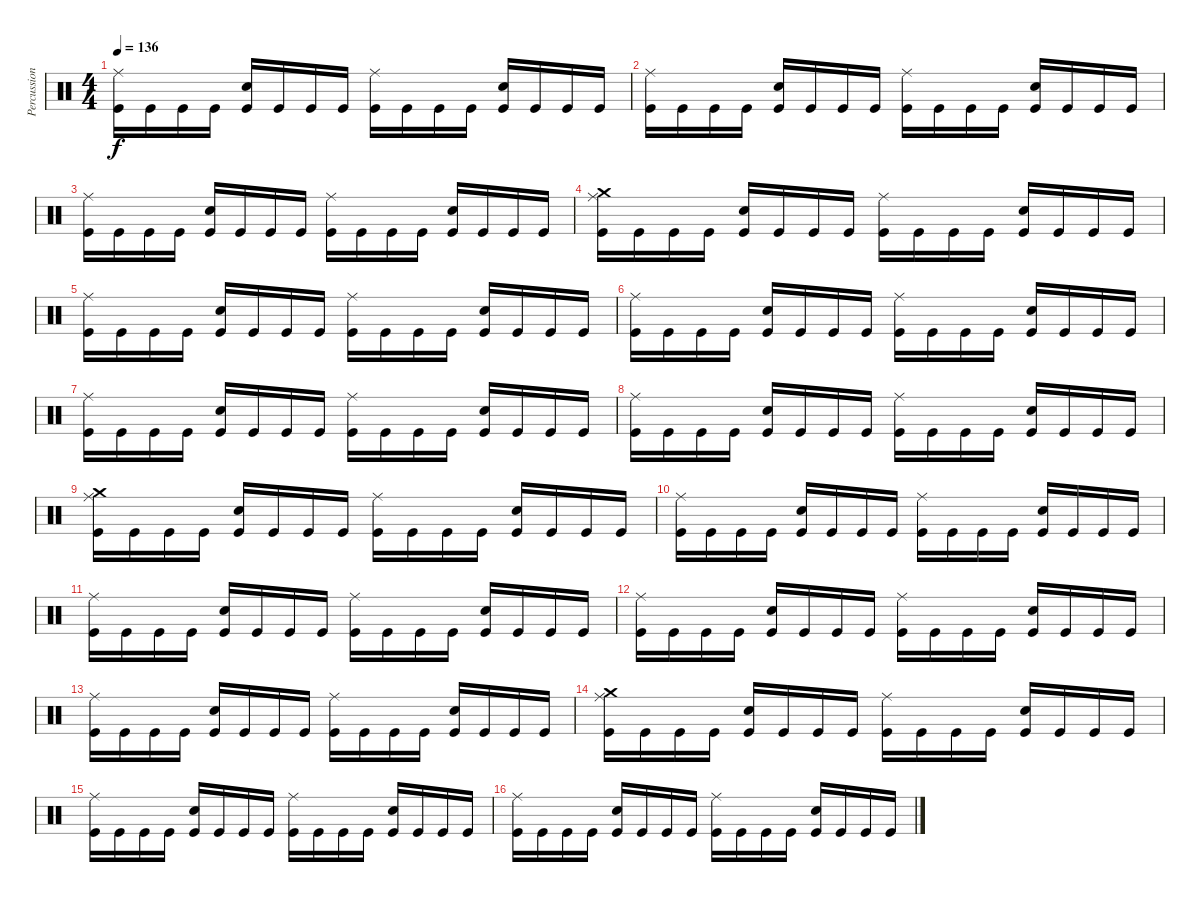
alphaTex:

\track ("Percussion IV" "Percussion") {instrument percussion}
\staff {score}
\articulation defaults
\ts (4 4)
\tempo 136
\clef neutral
\ks c
("Ride (middle)" "Kick (hit)").16{dy f} "Kick (hit)".16 "Kick (hit)".16 "Kick (hit)".16 ("Electric Snare (hit)" "Kick (hit)").16 "Kick (hit)".16 "Kick (hit)".16 "Kick (hit)".16 ("Ride (middle)" "Kick (hit)").16 "Kick (hit)".16 "Kick (hit)".16 "Kick (hit)".16 ("Electric Snare (hit)" "Kick (hit)").16 "Kick (hit)".16 "Kick (hit)".16 "Kick (hit)".16 |
("Ride (middle)" "Kick (hit)").16 "Kick (hit)".16 "Kick (hit)".16 "Kick (hit)".16 ("Electric Snare (hit)" "Kick (hit)").16 "Kick (hit)".16 "Kick (hit)".16 "Kick (hit)".16 ("Ride (middle)" "Kick (hit)").16 "Kick (hit)".16 "Kick (hit)".16 "Kick (hit)".16 ("Electric Snare (hit)" "Kick (hit)").16 "Kick (hit)".16 "Kick (hit)".16 "Kick (hit)".16 |
("Ride (middle)" "Kick (hit)").16 "Kick (hit)".16 "Kick (hit)".16 "Kick (hit)".16 ("Electric Snare (hit)" "Kick (hit)").16 "Kick (hit)".16 "Kick (hit)".16 "Kick (hit)".16 ("Ride (middle)" "Kick (hit)").16 "Kick (hit)".16 "Kick (hit)".16 "Kick (hit)".16 ("Electric Snare (hit)" "Kick (hit)").16 "Kick (hit)".16 "Kick (hit)".16 "Kick (hit)".16 |
("Crash medium (hit)" "Ride (middle)" "Kick (hit)").16 "Kick (hit)".16 "Kick (hit)".16 "Kick (hit)".16 ("Electric Snare (hit)" "Kick (hit)").16 "Kick (hit)".16 "Kick (hit)".16 "Kick (hit)".16 ("Ride (middle)" "Kick (hit)").16 "Kick (hit)".16 "Kick (hit)".16 "Kick (hit)".16 ("Electric Snare (hit)" "Kick (hit)").16 "Kick (hit)".16 "Kick (hit)".16 "Kick (hit)".16 |
("Ride (middle)" "Kick (hit)").16 "Kick (hit)".16 "Kick (hit)".16 "Kick (hit)".16 ("Electric Snare (hit)" "Kick (hit)").16 "Kick (hit)".16 "Kick (hit)".16 "Kick (hit)".16 ("Ride (middle)" "Kick (hit)").16 "Kick (hit)".16 "Kick (hit)".16 "Kick (hit)".16 ("Electric Snare (hit)" "Kick (hit)").16 "Kick (hit)".16 "Kick (hit)".16 "Kick (hit)".16 |
("Ride (middle)" "Kick (hit)").16 "Kick (hit)".16 "Kick (hit)".16 "Kick (hit)".16 ("Electric Snare (hit)" "Kick (hit)").16 "Kick (hit)".16 "Kick (hit)".16 "Kick (hit)".16 ("Ride (middle)" "Kick (hit)").16 "Kick (hit)".16 "Kick (hit)".16 "Kick (hit)".16 ("Electric Snare (hit)" "Kick (hit)").16 "Kick (hit)".16 "Kick (hit)".16 "Kick (hit)".16 |
("Ride (middle)" "Kick (hit)").16 "Kick (hit)".16 "Kick (hit)".16 "Kick (hit)".16 ("Electric Snare (hit)" "Kick (hit)").16 "Kick (hit)".16 "Kick (hit)".16 "Kick (hit)".16 ("Ride (middle)" "Kick (hit)").16 "Kick (hit)".16 "Kick (hit)".16 "Kick (hit)".16 ("Electric Snare (hit)" "Kick (hit)").16 "Kick (hit)".16 "Kick (hit)".16 "Kick (hit)".16 |
("Ride (middle)" "Kick (hit)").16 "Kick (hit)".16 "Kick (hit)".16 "Kick (hit)".16 ("Electric Snare (hit)" "Kick (hit)").16 "Kick (hit)".16 "Kick (hit)".16 "Kick (hit)".16 ("Ride (middle)" "Kick (hit)").16 "Kick (hit)".16 "Kick (hit)".16 "Kick (hit)".16 ("Electric Snare (hit)" "Kick (hit)").16 "Kick (hit)".16 "Kick (hit)".16 "Kick (hit)".16 |
("Crash medium (hit)" "Ride (middle)" "Kick (hit)").16 "Kick (hit)".16 "Kick (hit)".16 "Kick (hit)".16 ("Electric Snare (hit)" "Kick (hit)").16 "Kick (hit)".16 "Kick (hit)".16 "Kick (hit)".16 ("Ride (middle)" "Kick (hit)").16 "Kick (hit)".16 "Kick (hit)".16 "Kick (hit)".16 ("Electric Snare (hit)" "Kick (hit)").16 "Kick (hit)".16 "Kick (hit)".16 "Kick (hit)".16 |
("Ride (middle)" "Kick (hit)").16 "Kick (hit)".16 "Kick (hit)".16 "Kick (hit)".16 ("Electric Snare (hit)" "Kick (hit)").16 "Kick (hit)".16 "Kick (hit)".16 "Kick (hit)".16 ("Ride (middle)" "Kick (hit)").16 "Kick (hit)".16 "Kick (hit)".16 "Kick (hit)".16 ("Electric Snare (hit)" "Kick (hit)").16 "Kick (hit)".16 "Kick (hit)".16 "Kick (hit)".16 |
("Ride (middle)" "Kick (hit)").16 "Kick (hit)".16 "Kick (hit)".16 "Kick (hit)".16 ("Electric Snare (hit)" "Kick (hit)").16 "Kick (hit)".16 "Kick (hit)".16 "Kick (hit)".16 ("Ride (middle)" "Kick (hit)").16 "Kick (hit)".16 "Kick (hit)".16 "Kick (hit)".16 ("Electric Snare (hit)" "Kick (hit)").16 "Kick (hit)".16 "Kick (hit)".16 "Kick (hit)".16 |
("Ride (middle)" "Kick (hit)").16 "Kick (hit)".16 "Kick (hit)".16 "Kick (hit)".16 ("Electric Snare (hit)" "Kick (hit)").16 "Kick (hit)".16 "Kick (hit)".16 "Kick (hit)".16 ("Ride (middle)" "Kick (hit)").16 "Kick (hit)".16 "Kick (hit)".16 "Kick (hit)".16 ("Electric Snare (hit)" "Kick (hit)").16 "Kick (hit)".16 "Kick (hit)".16 "Kick (hit)".16 |
("Ride (middle)" "Kick (hit)").16 "Kick (hit)".16 "Kick (hit)".16 "Kick (hit)".16 ("Electric Snare (hit)" "Kick (hit)").16 "Kick (hit)".16 "Kick (hit)".16 "Kick (hit)".16 ("Ride (middle)" "Kick (hit)").16 "Kick (hit)".16 "Kick (hit)".16 "Kick (hit)".16 ("Electric Snare (hit)" "Kick (hit)").16 "Kick (hit)".16 "Kick (hit)".16 "Kick (hit)".16 |
("Crash medium (hit)" "Ride (middle)" "Kick (hit)").16 "Kick (hit)".16 "Kick (hit)".16 "Kick (hit)".16 ("Electric Snare (hit)" "Kick (hit)").16 "Kick (hit)".16 "Kick (hit)".16 "Kick (hit)".16 ("Ride (middle)" "Kick (hit)").16 "Kick (hit)".16 "Kick (hit)".16 "Kick (hit)".16 ("Electric Snare (hit)" "Kick (hit)").16 "Kick (hit)".16 "Kick (hit)".16 "Kick (hit)".16 |
("Ride (middle)" "Kick (hit)").16 "Kick (hit)".16 "Kick (hit)".16 "Kick (hit)".16 ("Electric Snare (hit)" "Kick (hit)").16 "Kick (hit)".16 "Kick (hit)".16 "Kick (hit)".16 ("Ride (middle)" "Kick (hit)").16 "Kick (hit)".16 "Kick (hit)".16 "Kick (hit)".16 ("Electric Snare (hit)" "Kick (hit)").16 "Kick (hit)".16 "Kick (hit)".16 "Kick (hit)".16 |
("Ride (middle)" "Kick (hit)").16 "Kick (hit)".16 "Kick (hit)".16 "Kick (hit)".16 ("Electric Snare (hit)" "Kick (hit)").16 "Kick (hit)".16 "Kick (hit)".16 "Kick (hit)".16 ("Ride (middle)" "Kick (hit)").16 "Kick (hit)".16 "Kick (hit)".16 "Kick (hit)".16 ("Electric Snare (hit)" "Kick (hit)").16 "Kick (hit)".16 "Kick (hit)".16 "Kick (hit)".16
